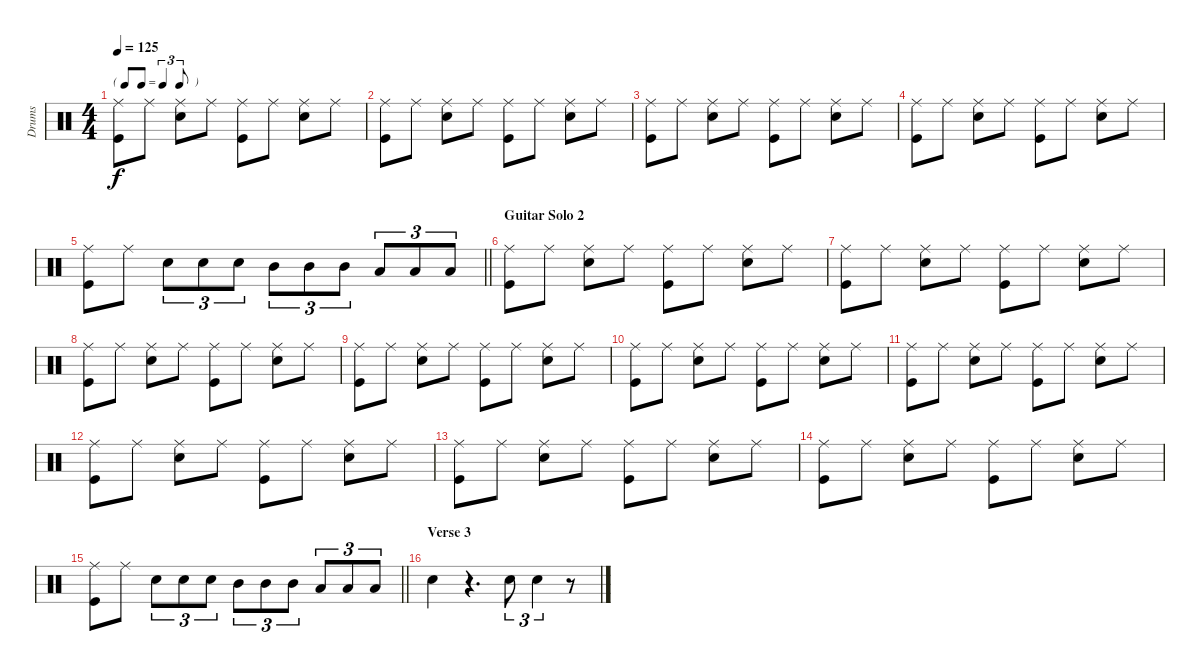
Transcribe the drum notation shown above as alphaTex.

\track ("Drums" "Drums") {instrument percussion}
\staff {score}
\articulation defaults
\ts (4 4)
\tf triplet8th
\tempo 125
\clef neutral
\ks aminor
("Ride (middle)" "Kick (hit)").8{dy f} "Ride (middle)".8 ("Ride (middle)" "Snare (hit) 2").8 "Ride (middle)".8 ("Ride (middle)" "Kick (hit)").8 "Ride (middle)".8 ("Ride (middle)" "Snare (hit) 2").8 "Ride (middle)".8 |
("Ride (middle)" "Kick (hit)").8 "Ride (middle)".8 ("Ride (middle)" "Snare (hit) 2").8 "Ride (middle)".8 ("Ride (middle)" "Kick (hit)").8 "Ride (middle)".8 ("Ride (middle)" "Snare (hit) 2").8 "Ride (middle)".8 |
("Ride (middle)" "Kick (hit)").8 "Ride (middle)".8 ("Ride (middle)" "Snare (hit) 2").8 "Ride (middle)".8 ("Ride (middle)" "Kick (hit)").8 "Ride (middle)".8 ("Ride (middle)" "Snare (hit) 2").8 "Ride (middle)".8 |
("Ride (middle)" "Kick (hit)").8 "Ride (middle)".8 ("Ride (middle)" "Snare (hit) 2").8 "Ride (middle)".8 ("Ride (middle)" "Kick (hit)").8 "Ride (middle)".8 ("Ride (middle)" "Snare (hit) 2").8 "Ride (middle)".8 |
\barLineRight lightlight
("Ride (middle)" "Kick (hit)").8 "Ride (middle)".8 "Snare (hit) 2".8{tu (3 2)} "Snare (hit) 2".8{tu (3 2)} "Snare (hit) 2".8{tu (3 2)} "Mid Tom (hit)".8{tu (3 2)} "Mid Tom (hit)".8{tu (3 2)} "Mid Tom (hit)".8{tu (3 2)} "Low Tom (hit)".8{tu (3 2)} "Low Tom (hit)".8{tu (3 2)} "Low Tom (hit)".8{tu (3 2)} |
\section ("" "Guitar Solo 2")
("Ride (middle)" "Kick (hit)").8 "Ride (middle)".8 ("Ride (middle)" "Snare (hit) 2").8 "Ride (middle)".8 ("Ride (middle)" "Kick (hit)").8 "Ride (middle)".8 ("Ride (middle)" "Snare (hit) 2").8 "Ride (middle)".8 |
("Ride (middle)" "Kick (hit)").8 "Ride (middle)".8 ("Ride (middle)" "Snare (hit) 2").8 "Ride (middle)".8 ("Ride (middle)" "Kick (hit)").8 "Ride (middle)".8 ("Ride (middle)" "Snare (hit) 2").8 "Ride (middle)".8 |
("Ride (middle)" "Kick (hit)").8 "Ride (middle)".8 ("Ride (middle)" "Snare (hit) 2").8 "Ride (middle)".8 ("Ride (middle)" "Kick (hit)").8 "Ride (middle)".8 ("Ride (middle)" "Snare (hit) 2").8 "Ride (middle)".8 |
("Ride (middle)" "Kick (hit)").8 "Ride (middle)".8 ("Ride (middle)" "Snare (hit) 2").8 "Ride (middle)".8 ("Ride (middle)" "Kick (hit)").8 "Ride (middle)".8 ("Ride (middle)" "Snare (hit) 2").8 "Ride (middle)".8 |
("Ride (middle)" "Kick (hit)").8 "Ride (middle)".8 ("Ride (middle)" "Snare (hit) 2").8 "Ride (middle)".8 ("Ride (middle)" "Kick (hit)").8 "Ride (middle)".8 ("Ride (middle)" "Snare (hit) 2").8 "Ride (middle)".8 |
("Ride (middle)" "Kick (hit)").8 "Ride (middle)".8 ("Ride (middle)" "Snare (hit) 2").8 "Ride (middle)".8 ("Ride (middle)" "Kick (hit)").8 "Ride (middle)".8 ("Ride (middle)" "Snare (hit) 2").8 "Ride (middle)".8 |
("Ride (middle)" "Kick (hit)").8 "Ride (middle)".8 ("Ride (middle)" "Snare (hit) 2").8 "Ride (middle)".8 ("Ride (middle)" "Kick (hit)").8 "Ride (middle)".8 ("Ride (middle)" "Snare (hit) 2").8 "Ride (middle)".8 |
("Ride (middle)" "Kick (hit)").8 "Ride (middle)".8 ("Ride (middle)" "Snare (hit) 2").8 "Ride (middle)".8 ("Ride (middle)" "Kick (hit)").8 "Ride (middle)".8 ("Ride (middle)" "Snare (hit) 2").8 "Ride (middle)".8 |
("Ride (middle)" "Kick (hit)").8 "Ride (middle)".8 ("Ride (middle)" "Snare (hit) 2").8 "Ride (middle)".8 ("Ride (middle)" "Kick (hit)").8 "Ride (middle)".8 ("Ride (middle)" "Snare (hit) 2").8 "Ride (middle)".8 |
\barLineRight lightlight
("Ride (middle)" "Kick (hit)").8 "Ride (middle)".8 "Snare (hit) 2".8{tu (3 2)} "Snare (hit) 2".8{tu (3 2)} "Snare (hit) 2".8{tu (3 2)} "Mid Tom (hit)".8{tu (3 2)} "Mid Tom (hit)".8{tu (3 2)} "Mid Tom (hit)".8{tu (3 2)} "Low Tom (hit)".8{tu (3 2)} "Low Tom (hit)".8{tu (3 2)} "Low Tom (hit)".8{tu (3 2)} |
\section ("" "Verse 3")
"Snare (hit) 2".4 r.4{d} "Snare (hit) 2".8{tu (3 2)} "Snare (hit) 2".4{tu (3 2)} r.8
